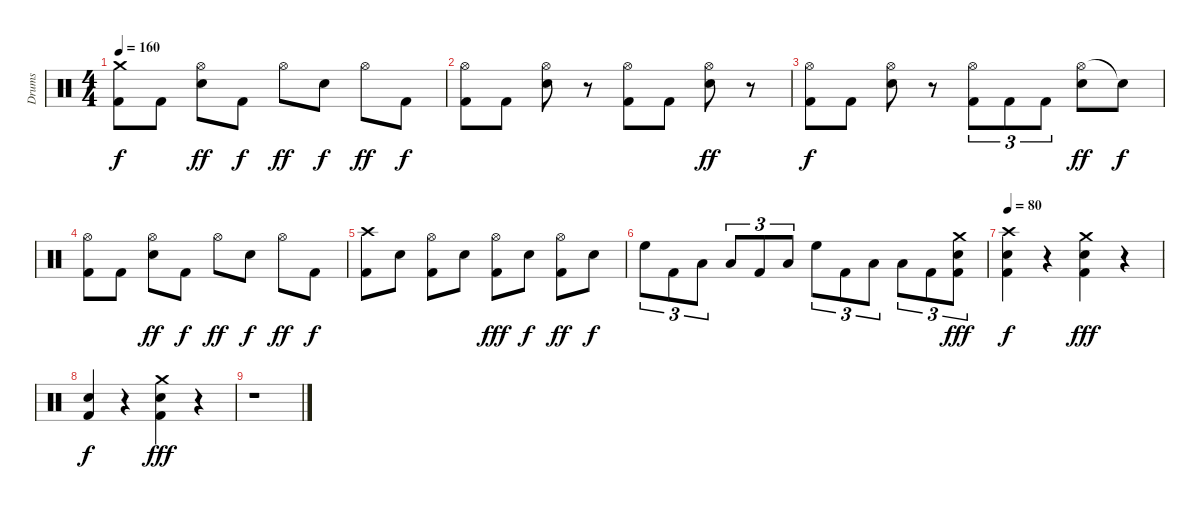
\track ("Drums" "Drums") {instrument percussion}
\staff {score}
\articulation defaults
\ts (4 4)
\tempo 160
\clef neutral
\ks c
("Crash medium (hit)" "Kick (hit) 2").8{dy f} "Kick (hit) 2".8 ("Hi-Hat (open)" "Electric Snare (hit)").8{dy ff} "Kick (hit) 2".8{dy f} "Hi-Hat (open)".8{dy ff} "Electric Snare (hit)".8{dy f} "Hi-Hat (open)".8{dy ff} "Kick (hit) 2".8{dy f} |
("Hi-Hat (open)" "Kick (hit) 2").8 "Kick (hit) 2".8 ("Hi-Hat (open)" "Electric Snare (hit)").8 r.8 ("Hi-Hat (open)" "Kick (hit) 2").8 "Kick (hit) 2".8 ("Hi-Hat (open)" "Electric Snare (hit)").8{dy ff} r.8 |
("Hi-Hat (open)" "Kick (hit) 2").8{dy f} "Kick (hit) 2".8 ("Hi-Hat (open)" "Electric Snare (hit)").8 r.8 ("Hi-Hat (open)" "Kick (hit) 2").8{tu (3 2)} "Kick (hit) 2".8{tu (3 2)} "Kick (hit) 2".8{tu (3 2)} ("Hi-Hat (open)" "Electric Snare (hit)").8{dy ff} "Snare (hit)"{t}.8{dy f} |
("Hi-Hat (open)" "Kick (hit) 2").8 "Kick (hit) 2".8 ("Hi-Hat (open)" "Electric Snare (hit)").8{dy ff} "Kick (hit) 2".8{dy f} "Hi-Hat (open)".8{dy ff} "Electric Snare (hit)".8{dy f} "Hi-Hat (open)".8{dy ff} "Kick (hit) 2".8{dy f} |
("Crash high (hit)" "Kick (hit) 2").8 "Electric Snare (hit)".8 ("Hi-Hat (open)" "Kick (hit) 2").8 "Electric Snare (hit)".8 ("Hi-Hat (open)" "Kick (hit) 2").8{dy fff} "Electric Snare (hit)".8{dy f} ("Hi-Hat (open)" "Kick (hit) 2").8{dy ff} "Electric Snare (hit)".8{dy f} |
"High Floor Tom (hit)".8{tu (3 2)} "Kick (hit) 2".8{tu (3 2)} "Low Floor Tom (hit)".8{tu (3 2)} "Low Tom (hit)".8{tu (3 2)} "Kick (hit) 2".8{tu (3 2)} "Low Floor Tom (hit)".8{tu (3 2)} "High Floor Tom (hit)".8{tu (3 2)} "Kick (hit) 2".8{tu (3 2)} "Low Floor Tom (hit)".8{tu (3 2)} "Low Tom (hit)".8{tu (3 2)} "Kick (hit) 2".8{tu (3 2)} ("Crash medium (hit)" "Electric Snare (hit)" "Kick (hit) 2").8{tu (3 2) dy fff} |
\tempo 80
("Crash high (hit)" "Electric Snare (hit)" "Kick (hit) 2").4{dy f} r.4 ("Crash medium (hit)" "Electric Snare (hit)" "Kick (hit) 2").4{dy fff} r.4 |
("Electric Snare (hit)" "Kick (hit) 2").4{dy f} r.4 ("Crash medium (hit)" "Electric Snare (hit)" "Kick (hit) 2").4{dy fff} r.4 |
r.1
